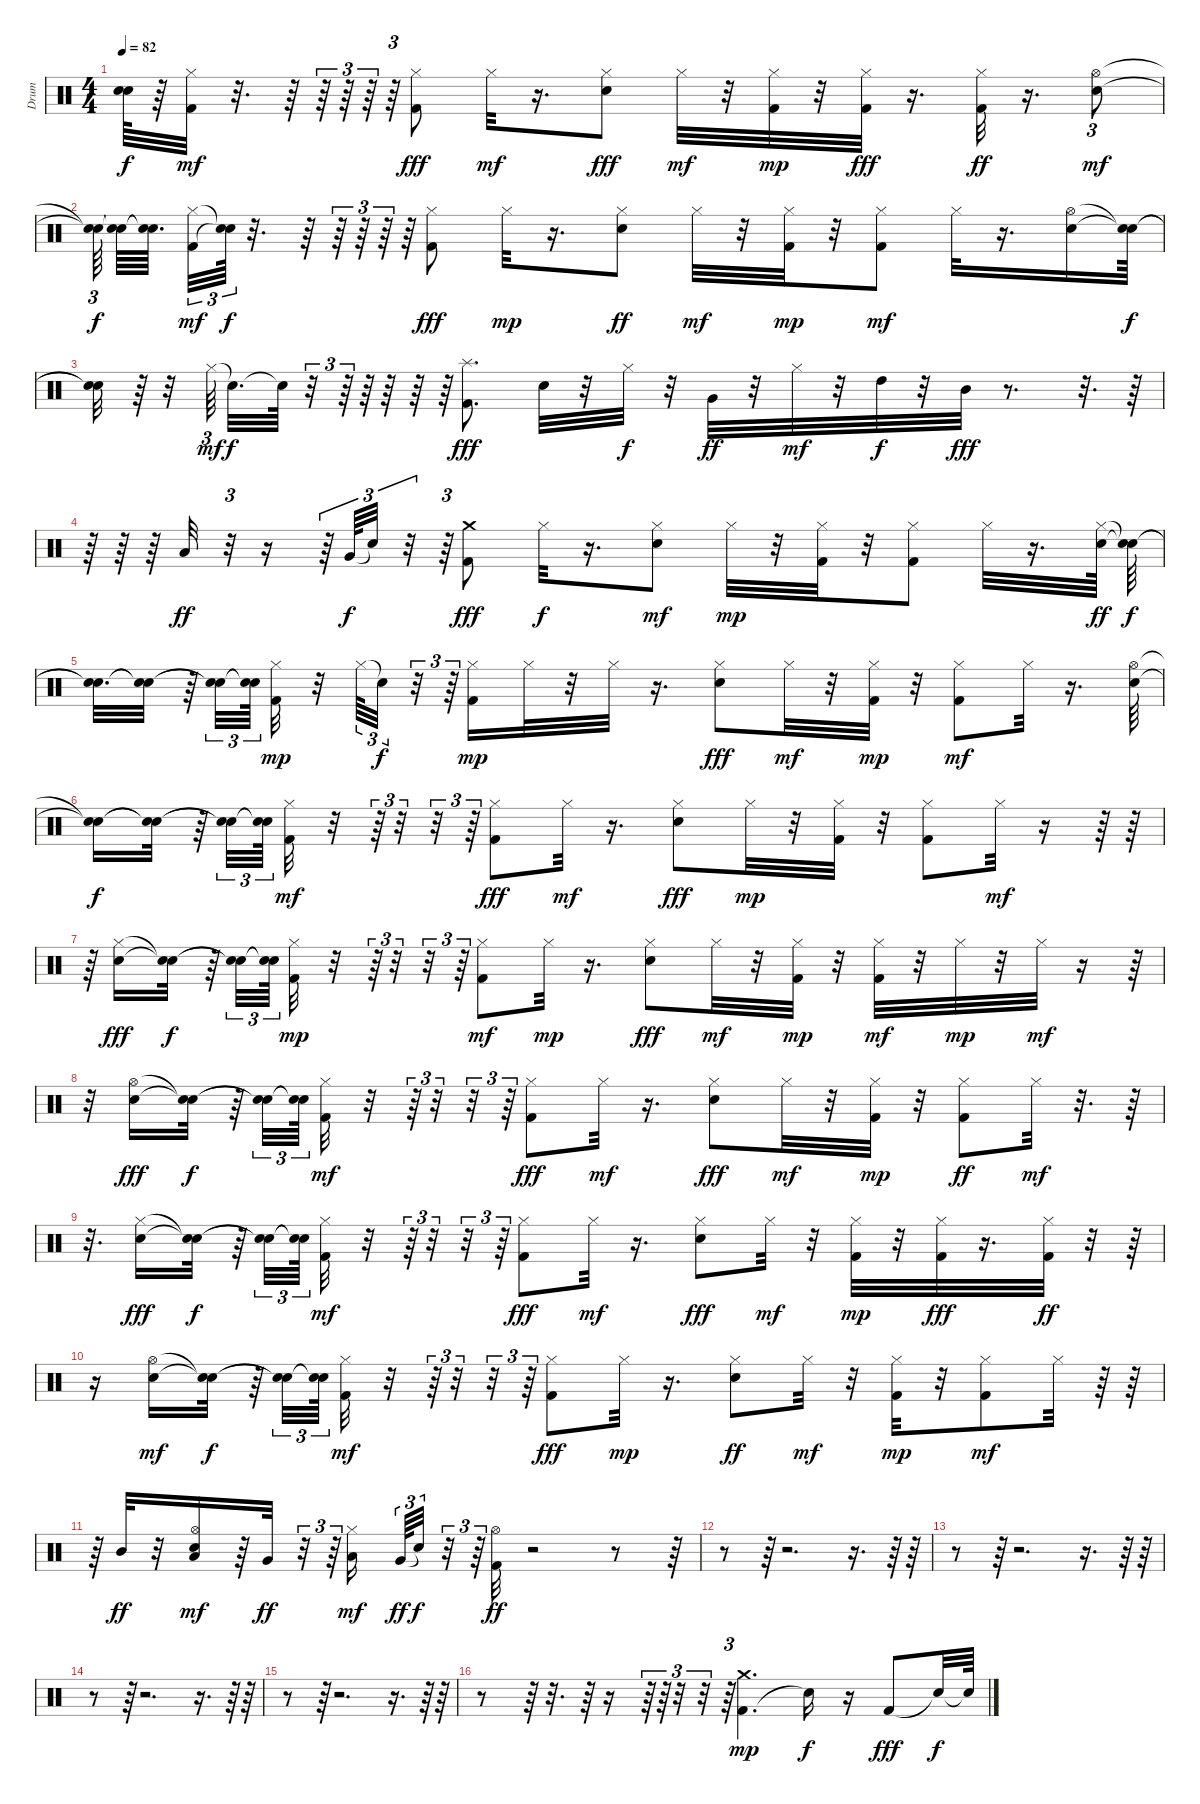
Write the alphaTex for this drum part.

\track ("Drum" "Drum") {instrument percussion}
\staff {score}
\articulation defaults
\ts (4 4)
\tempo 82
\clef neutral
\ks c
("Snare (hit)"{t} "Snare (hit)"{t}).64{dy f} r.64 ("Kick (hit) 2" "Hi-Hat (closed)").32{dy mf} r.32{d} r.64 r.64{tu (3 2)} r.64{tu (3 2)} r.64{tu (3 2)} r.64{tu (3 2)} ("Kick (hit) 2" "Hi-Hat (closed)").8{dy fff} "Hi-Hat (closed)".32{dy mf} r.16{d} ("Electric Snare (hit)" "Hi-Hat (closed)").8{dy fff} "Hi-Hat (closed)".32{dy mf} r.32 ("Kick (hit) 2" "Hi-Hat (closed)").32{dy mp} r.32 ("Kick (hit) 2" "Hi-Hat (closed)").32{dy fff} r.16{d} ("Kick (hit) 2" "Hi-Hat (closed)").32{dy ff} r.16{d} ("Electric Snare (hit)" "Hi-Hat (open)").8{tu (3 2) dy mf} |
("Snare (hit)"{t} "Snare (hit)"{t}).64{tu (3 2) dy f beam splitsecondary} ("Snare (hit)"{t} "Snare (hit)"{t}).64 ("Snare (hit)"{t} "Snare (hit)"{t}).64{d beam splitsecondary} ("Kick (hit) 2" "Hi-Hat (closed)").32{tu (3 2) dy mf} ("Snare (hit)"{t} "Snare (hit)"{t}).64{tu (3 2) dy f} r.32{d} r.64 r.64{tu (3 2)} r.64{tu (3 2)} r.64{tu (3 2)} r.64{tu (3 2)} ("Kick (hit) 2" "Hi-Hat (closed)").8{dy fff} "Hi-Hat (closed)".32{dy mp} r.16{d} ("Electric Snare (hit)" "Hi-Hat (closed)").8{dy ff} "Hi-Hat (closed)".32{dy mf} r.32 ("Kick (hit) 2" "Hi-Hat (closed)").32{dy mp} r.32 ("Kick (hit) 2" "Hi-Hat (closed)").8{dy mf} "Hi-Hat (closed)".32 r.16{d} ("Electric Snare (hit)" "Hi-Hat (open)").16 ("Snare (hit)"{t} "Snare (hit)"{t}).64{dy f} |
("Snare (hit)"{t} "Snare (hit)"{t}).32 r.64 r.32 "Hi-Hat (closed)".64{tu (3 2) dy mf beam splitsecondary} "Snare (hit)"{t}.32{d dy f} "Snare (hit)"{t}.64 r.32{tu (3 2)} r.64{tu (3 2)} r.64{tu (3 2)} r.64 r.64 r.64{tu (3 2)} ("Kick (hit) 2" "Splash (hit)").8{d dy fff} "Electric Snare (hit)".32 r.32 "Hi-Hat (closed)".32{dy f} r.32 "Very Low Tom (hit)".32{dy ff} r.32 "Hi-Hat (closed)".32{dy mf} r.32 "High Tom (hit)".32{dy f} r.32 "Mid Tom (hit)".32{dy fff} r.8{d} r.32{d} r.64 |
r.64 r.64 r.64 "Low Tom (hit)".32{dy ff} r.32{tu (3 2)} r.16 r.64{tu (3 2)} "Very Low Tom (hit)".64{tu (3 2) dy f} "Snare (hit)"{t}.32{tu (3 2)} r.32{tu (3 2)} r.64{tu (3 2)} ("Kick (hit) 2" "Crash medium (hit)").8{dy fff} "Hi-Hat (closed)".32{dy f} r.16{d} ("Electric Snare (hit)" "Hi-Hat (closed)").8{dy mf} "Hi-Hat (closed)".32{dy mp} r.32 ("Kick (hit) 2" "Hi-Hat (closed)").32 r.32 ("Kick (hit) 2" "Hi-Hat (closed)").8 "Hi-Hat (closed)".32 r.16{d} ("Electric Snare (hit)" "Hi-Hat (closed)").64{dy ff} ("Snare (hit)"{t} "Snare (hit)"{t}).64{dy f} |
("Snare (hit)"{t} "Snare (hit)"{t}).32{d} ("Snare (hit)"{t} "Snare (hit)"{t}).32 r.64 ("Snare (hit)"{t} "Snare (hit)"{t}).32{tu (3 2)} ("Snare (hit)"{t} "Snare (hit)"{t}).64{tu (3 2) beam splitsecondary} ("Kick (hit) 2" "Hi-Hat (closed)").32{dy mp} r.32 "Hi-Hat (closed)".64{tu (3 2)} "Snare (hit)"{t}.32{tu (3 2) dy f} r.32{tu (3 2)} r.64{tu (3 2)} ("Kick (hit) 2" "Hi-Hat (closed)").16{dy mp} "Hi-Hat (closed)".32 r.32 "Hi-Hat (closed)".32 r.16{d} ("Electric Snare (hit)" "Hi-Hat (closed)").8{dy fff} "Hi-Hat (closed)".32{dy mf} r.32 ("Kick (hit) 2" "Hi-Hat (closed)").32{dy mp} r.32 ("Kick (hit) 2" "Hi-Hat (closed)").8{dy mf} "Hi-Hat (closed)".32 r.16{d} ("Electric Snare (hit)" "Hi-Hat (open)").64 |
("Snare (hit)"{t} "Snare (hit)"{t}).16{dy f} ("Snare (hit)"{t} "Snare (hit)"{t}).32 r.64 ("Snare (hit)"{t} "Snare (hit)"{t}).32{tu (3 2)} ("Snare (hit)"{t} "Snare (hit)"{t}).64{tu (3 2) beam splitsecondary} ("Kick (hit) 2" "Hi-Hat (closed)").32{dy mf} r.32 r.64{tu (3 2)} r.32{tu (3 2)} r.32{tu (3 2)} r.64{tu (3 2)} ("Kick (hit) 2" "Hi-Hat (closed)").8{dy fff} "Hi-Hat (closed)".32{dy mf} r.16{d} ("Electric Snare (hit)" "Hi-Hat (closed)").8{dy fff} "Hi-Hat (closed)".32{dy mp} r.32 ("Kick (hit) 2" "Hi-Hat (closed)").32 r.32 ("Kick (hit) 2" "Hi-Hat (closed)").8 "Hi-Hat (closed)".32{dy mf} r.16 r.64 r.64 |
r.64 ("Electric Snare (hit)" "Hi-Hat (closed)").16{dy fff} ("Snare (hit)"{t} "Snare (hit)"{t}).32{dy f} r.64 ("Snare (hit)"{t} "Snare (hit)"{t}).32{tu (3 2)} ("Snare (hit)"{t} "Snare (hit)"{t}).64{tu (3 2) beam splitsecondary} ("Kick (hit) 2" "Hi-Hat (closed)").32{dy mp} r.32 r.64{tu (3 2)} r.32{tu (3 2)} r.32{tu (3 2)} r.64{tu (3 2)} ("Kick (hit) 2" "Hi-Hat (closed)").8{dy mf} "Hi-Hat (closed)".32{dy mp} r.16{d} ("Electric Snare (hit)" "Hi-Hat (closed)").8{dy fff} "Hi-Hat (closed)".32{dy mf} r.32 ("Kick (hit) 2" "Hi-Hat (closed)").32{dy mp} r.32 ("Kick (hit) 2" "Hi-Hat (closed)").32{dy mf} r.32 "Hi-Hat (closed)".32{dy mp} r.32 "Hi-Hat (closed)".32{dy mf} r.16 r.64 |
r.32 ("Electric Snare (hit)" "Hi-Hat (open)").16{dy fff} ("Snare (hit)"{t} "Snare (hit)"{t}).32{dy f} r.64 ("Snare (hit)"{t} "Snare (hit)"{t}).32{tu (3 2)} ("Snare (hit)"{t} "Snare (hit)"{t}).64{tu (3 2) beam splitsecondary} ("Kick (hit) 2" "Hi-Hat (closed)").32{dy mf} r.32 r.64{tu (3 2)} r.32{tu (3 2)} r.32{tu (3 2)} r.64{tu (3 2)} ("Kick (hit) 2" "Hi-Hat (closed)").8{dy fff} "Hi-Hat (closed)".32{dy mf} r.16{d} ("Electric Snare (hit)" "Hi-Hat (closed)").8{dy fff} "Hi-Hat (closed)".32{dy mf} r.32 ("Kick (hit) 2" "Hi-Hat (closed)").32{dy mp} r.32 ("Kick (hit) 2" "Hi-Hat (closed)").8{dy ff} "Hi-Hat (closed)".32{dy mf} r.32{d} r.64 |
r.32{d} ("Electric Snare (hit)" "Hi-Hat (closed)").16{dy fff} ("Snare (hit)"{t} "Snare (hit)"{t}).32{dy f} r.64 ("Snare (hit)"{t} "Snare (hit)"{t}).32{tu (3 2)} ("Snare (hit)"{t} "Snare (hit)"{t}).64{tu (3 2) beam splitsecondary} ("Kick (hit) 2" "Hi-Hat (closed)").32{dy mf} r.32 r.64{tu (3 2)} r.32{tu (3 2)} r.32{tu (3 2)} r.64{tu (3 2)} ("Kick (hit) 2" "Hi-Hat (closed)").8{dy fff} "Hi-Hat (closed)".32{dy mf} r.16{d} ("Electric Snare (hit)" "Hi-Hat (closed)").8{dy fff} "Hi-Hat (closed)".32{dy mf} r.32 ("Kick (hit) 2" "Hi-Hat (closed)").32{dy mp} r.32 ("Kick (hit) 2" "Hi-Hat (closed)").32{dy fff} r.16{d} ("Kick (hit) 2" "Hi-Hat (closed)").32{dy ff} r.32 r.64 |
r.16 ("Electric Snare (hit)" "Hi-Hat (open)").16{dy mf} ("Snare (hit)"{t} "Snare (hit)"{t}).32{dy f} r.64 ("Snare (hit)"{t} "Snare (hit)"{t}).32{tu (3 2)} ("Snare (hit)"{t} "Snare (hit)"{t}).64{tu (3 2) beam splitsecondary} ("Kick (hit) 2" "Hi-Hat (closed)").32{dy mf} r.32 r.64{tu (3 2)} r.32{tu (3 2)} r.32{tu (3 2)} r.64{tu (3 2)} ("Kick (hit) 2" "Hi-Hat (closed)").8{dy fff} "Hi-Hat (closed)".32{dy mp} r.16{d} ("Electric Snare (hit)" "Hi-Hat (closed)").8{dy ff} "Hi-Hat (closed)".32{dy mf} r.32 ("Kick (hit) 2" "Hi-Hat (closed)").32{dy mp} r.32 ("Kick (hit) 2" "Hi-Hat (closed)").8{dy mf} "Hi-Hat (closed)".32 r.64 r.64 |
r.64 "Mid Tom (hit)".32{dy ff} r.32 ("Electric Snare (hit)" "Low Tom (hit)" "Hi-Hat (open)").16{dy mf} r.64 "Very Low Tom (hit)".32{dy ff} r.32{tu (3 2)} r.64{tu (3 2)} ("Low Floor Tom (hit)" "Hi-Hat (closed)").16{dy mf} "Very Low Tom (hit)".64{tu (3 2) dy ff} "Snare (hit)"{t}.32{tu (3 2) dy f} r.32{tu (3 2)} r.64{tu (3 2)} ("Kick (hit) 2" "Hi-Hat (open)").32{dy ff} r.2 r.8 r.64 |
r.8 r.64 r.2{d} r.16{d} r.64 r.64 |
r.8 r.64 r.2{d} r.16{d} r.64 r.64 |
r.8 r.64 r.2{d} r.16{d} r.64 r.64 |
r.8 r.64 r.2{d} r.16{d} r.64 r.64 |
r.8 r.64 r.32{d} r.64 r.16 r.64{tu (3 2)} r.64{tu (3 2)} r.32{tu (3 2)} r.32{tu (3 2)} r.64{tu (3 2)} ("Kick (hit) 2" "Crash medium (hit)").4{d dy mp} "Snare (hit)"{t}.16{dy f} r.16 "Kick (hit) 2".8{dy fff} "Snare (hit)"{t}.32{dy f} "Snare (hit)"{t}.64
